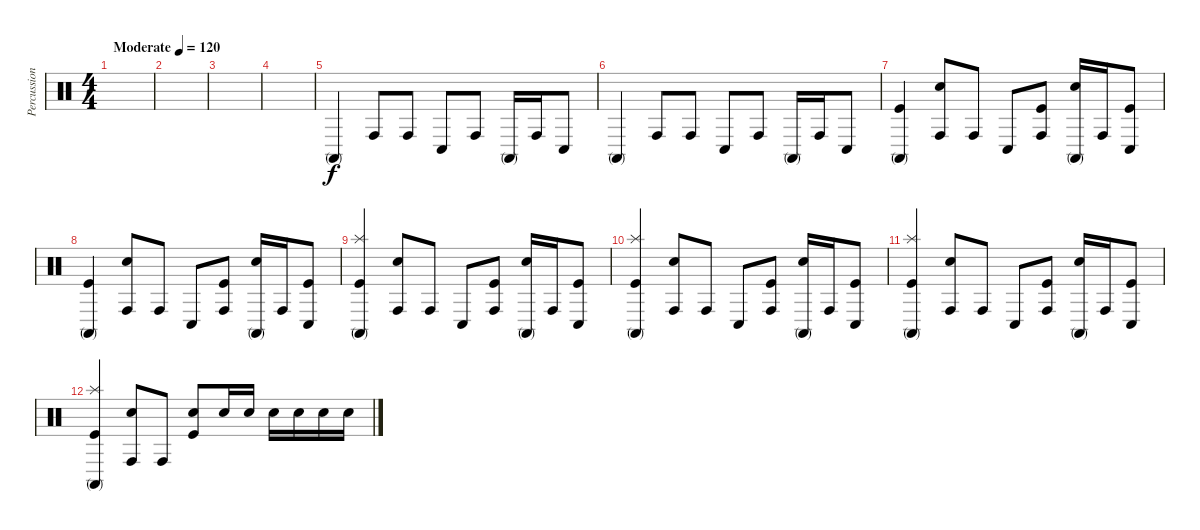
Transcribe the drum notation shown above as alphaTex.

\track ("Percussion" "Percussion") {instrument percussion}
\staff {score}
\articulation defaults
\ts (4 4)
\tempo (120 "Moderate")
\clef neutral
\ks c
|
|
|
|
"Conga high (mute)".4 "Conga high (hit)".8 "Conga high (hit)".8 "Conga low (hit)".8 "Conga high (hit)".8 "Conga high (mute)".16 "Conga high (hit)".16 "Conga low (hit)".8 |
"Conga high (mute)".4 "Conga high (hit)".8 "Conga high (hit)".8 "Conga low (hit)".8 "Conga high (hit)".8 "Conga high (mute)".16 "Conga high (hit)".16 "Conga low (hit)".8 |
("Conga high (mute)" "Kick (hit)").4 ("Conga high (hit)" "Snare (hit) 2").8 "Conga high (hit)".8 "Conga low (hit)".8 ("Conga high (hit)" "Kick (hit)").8 ("Conga high (mute)" "Snare (hit) 2").16 "Conga high (hit)".16 ("Conga low (hit)" "Kick (hit)").8 |
("Conga high (mute)" "Kick (hit)").4 ("Conga high (hit)" "Snare (hit) 2").8 "Conga high (hit)".8 "Conga low (hit)".8 ("Conga high (hit)" "Kick (hit)").8 ("Conga high (mute)" "Snare (hit) 2").16 "Conga high (hit)".16 ("Conga low (hit)" "Kick (hit)").8 |
("Splash (hit)" "Conga high (mute)" "Kick (hit)").4 ("Conga high (hit)" "Snare (hit) 2").8 "Conga high (hit)".8 "Conga low (hit)".8 ("Conga high (hit)" "Kick (hit)").8 ("Conga high (mute)" "Snare (hit) 2").16 "Conga high (hit)".16 ("Conga low (hit)" "Kick (hit)").8 |
("Splash (hit)" "Conga high (mute)" "Kick (hit)").4 ("Conga high (hit)" "Snare (hit) 2").8 "Conga high (hit)".8 "Conga low (hit)".8 ("Conga high (hit)" "Kick (hit)").8 ("Conga high (mute)" "Snare (hit) 2").16 "Conga high (hit)".16 ("Conga low (hit)" "Kick (hit)").8 |
("Splash (hit)" "Conga high (mute)" "Kick (hit)").4 ("Conga high (hit)" "Snare (hit) 2").8 "Conga high (hit)".8 "Conga low (hit)".8 ("Conga high (hit)" "Kick (hit)").8 ("Conga high (mute)" "Snare (hit) 2").16 "Conga high (hit)".16 ("Conga low (hit)" "Kick (hit)").8 |
("Splash (hit)" "Conga high (mute)" "Kick (hit)").4 ("Conga high (hit)" "Snare (hit) 2").8 "Conga high (hit)".8 ("Snare (hit) 2" "Kick (hit)").8 "Snare (hit) 2".16 "Snare (hit) 2".16 "Snare (hit) 2".16 "Snare (hit) 2".16 "Snare (hit) 2".16 "Snare (hit) 2".16
